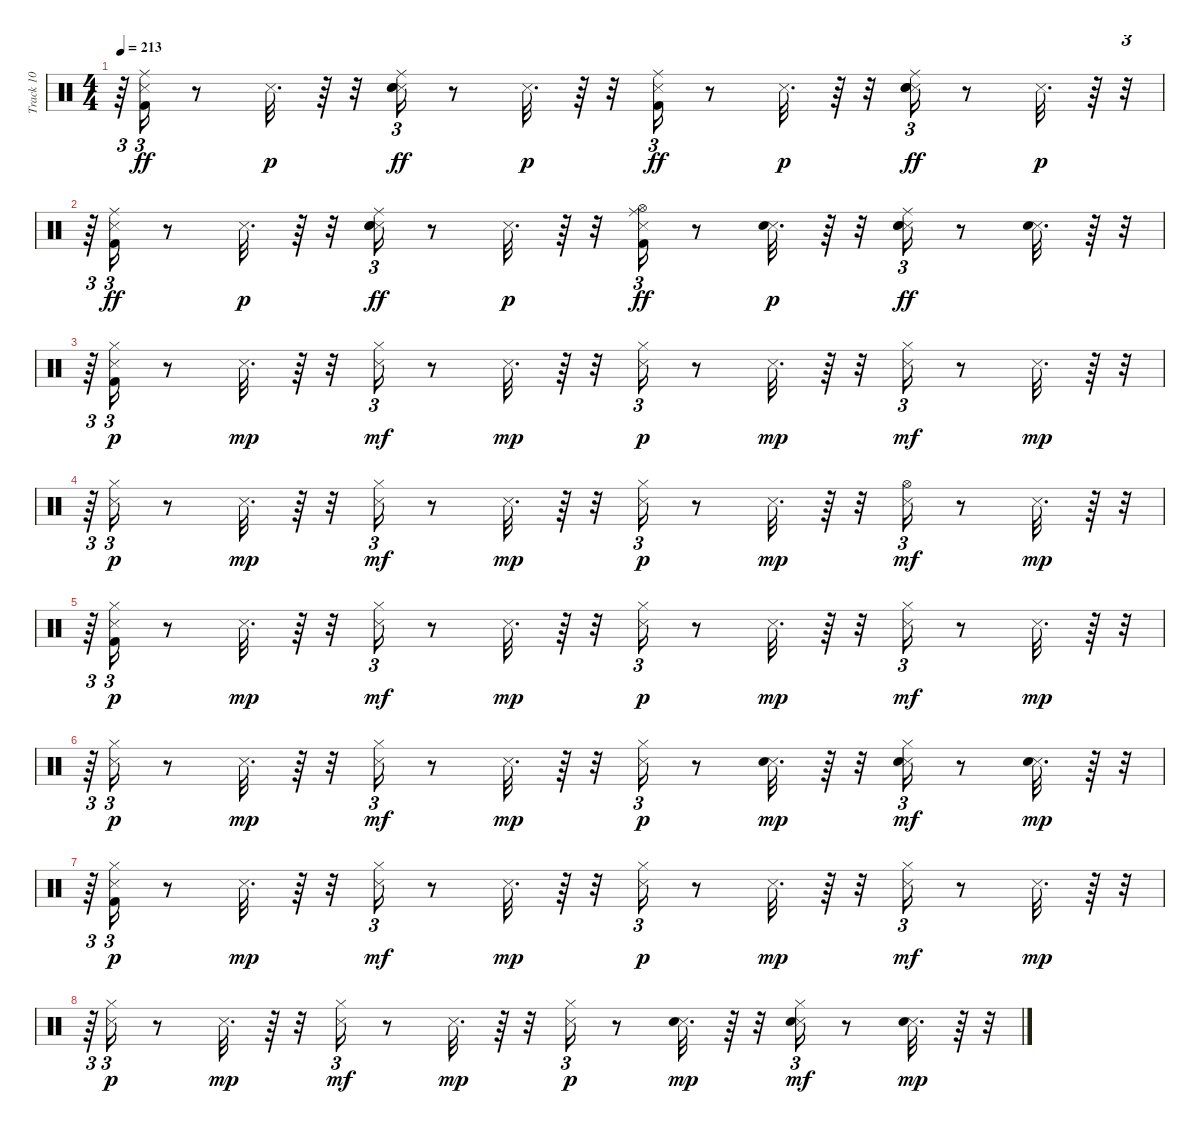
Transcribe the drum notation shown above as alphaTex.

\track ("Track 10" "Track 10") {instrument percussion}
\staff {score}
\articulation defaults
\ts (4 4)
\tempo 213
\clef neutral
\ks c
r.64{tu (3 2) dy p} ("Kick (hit) 2" "Snare (side stick) 3" "Ride (middle)").16{tu (3 2) dy ff} r.8 "Snare (side stick) 3".32{d dy p} r.64 r.32 ("Snare (side stick) 3" "Hand Clap (hit)" "Electric Snare (hit)" "Ride (middle)").16{tu (3 2) dy ff} r.8 "Snare (side stick) 3".32{d dy p} r.64 r.32 ("Kick (hit) 2" "Snare (side stick) 3" "Ride (middle)").16{tu (3 2) dy ff} r.8 "Snare (side stick) 3".32{d dy p} r.64 r.32 ("Snare (side stick) 3" "Hand Clap (hit)" "Electric Snare (hit)" "Ride (middle)").16{tu (3 2) dy ff} r.8 "Snare (side stick) 3".32{d dy p} r.64 r.32{tu (3 2)} |
r.64{tu (3 2)} ("Kick (hit) 2" "Snare (side stick) 3" "Ride (middle)").16{tu (3 2) dy ff} r.8 "Snare (side stick) 3".32{d dy p} r.64 r.32 ("Snare (side stick) 3" "Hand Clap (hit)" "Electric Snare (hit)" "Ride (middle)").16{tu (3 2) dy ff} r.8 "Snare (side stick) 3".32{d dy p} r.64 r.32 ("Kick (hit) 2" "Snare (side stick) 3" "Hi-Hat (open)" "Ride (middle)").16{tu (3 2) dy ff} r.8 ("Snare (side stick) 3" "Electric Snare (hit)").32{d dy p} r.64 r.32 ("Snare (side stick) 3" "Hand Clap (hit)" "Electric Snare (hit)" "Ride (middle)").16{tu (3 2) dy ff} r.8 ("Snare (side stick) 3" "Electric Snare (hit)").32{d} r.64 r.32{tu (3 2)} |
r.64{tu (3 2)} ("Kick (hit) 2" "Snare (side stick) 3" "Hi-Hat (closed)").16{tu (3 2) dy p} r.8 "Snare (side stick) 3".32{d dy mp} r.64 r.32 ("Snare (side stick) 3" "Hi-Hat (closed)").16{tu (3 2) dy mf} r.8 "Snare (side stick) 3".32{d dy mp} r.64 r.32 ("Snare (side stick) 3" "Hi-Hat (closed)").16{tu (3 2) dy p} r.8 "Snare (side stick) 3".32{d dy mp} r.64 r.32 ("Snare (side stick) 3" "Hi-Hat (closed)").16{tu (3 2) dy mf} r.8 "Snare (side stick) 3".32{d dy mp} r.64 r.32{tu (3 2)} |
r.64{tu (3 2)} ("Snare (side stick) 3" "Hi-Hat (closed)").16{tu (3 2) dy p} r.8 "Snare (side stick) 3".32{d dy mp} r.64 r.32 ("Snare (side stick) 3" "Hi-Hat (closed)").16{tu (3 2) dy mf} r.8 "Snare (side stick) 3".32{d dy mp} r.64 r.32 ("Snare (side stick) 3" "Hi-Hat (closed)").16{tu (3 2) dy p} r.8 "Snare (side stick) 3".32{d dy mp} r.64 r.32 ("Snare (side stick) 3" "Hi-Hat (open)").16{tu (3 2) dy mf} r.8 "Snare (side stick) 3".32{d dy mp} r.64 r.32{tu (3 2)} |
r.64{tu (3 2)} ("Kick (hit) 2" "Snare (side stick) 3" "Hi-Hat (closed)").16{tu (3 2) dy p} r.8 "Snare (side stick) 3".32{d dy mp} r.64 r.32 ("Snare (side stick) 3" "Hi-Hat (closed)").16{tu (3 2) dy mf} r.8 "Snare (side stick) 3".32{d dy mp} r.64 r.32 ("Snare (side stick) 3" "Hi-Hat (closed)").16{tu (3 2) dy p} r.8 "Snare (side stick) 3".32{d dy mp} r.64 r.32 ("Snare (side stick) 3" "Hi-Hat (closed)").16{tu (3 2) dy mf} r.8 "Snare (side stick) 3".32{d dy mp} r.64 r.32{tu (3 2)} |
r.64{tu (3 2)} ("Snare (side stick) 3" "Hi-Hat (closed)").16{tu (3 2) dy p} r.8 "Snare (side stick) 3".32{d dy mp} r.64 r.32 ("Snare (side stick) 3" "Hi-Hat (closed)").16{tu (3 2) dy mf} r.8 "Snare (side stick) 3".32{d dy mp} r.64 r.32 ("Snare (side stick) 3" "Hi-Hat (closed)").16{tu (3 2) dy p} r.8 ("Snare (side stick) 3" "Electric Snare (hit)").32{d dy mp} r.64 r.32 ("Snare (side stick) 3" "Electric Snare (hit)" "Hi-Hat (closed)").16{tu (3 2) dy mf} r.8 ("Snare (side stick) 3" "Electric Snare (hit)").32{d dy mp} r.64 r.32{tu (3 2)} |
r.64{tu (3 2)} ("Kick (hit) 2" "Snare (side stick) 3" "Hi-Hat (closed)").16{tu (3 2) dy p} r.8 "Snare (side stick) 3".32{d dy mp} r.64 r.32 ("Snare (side stick) 3" "Hi-Hat (closed)").16{tu (3 2) dy mf} r.8 "Snare (side stick) 3".32{d dy mp} r.64 r.32 ("Snare (side stick) 3" "Hi-Hat (closed)").16{tu (3 2) dy p} r.8 "Snare (side stick) 3".32{d dy mp} r.64 r.32 ("Snare (side stick) 3" "Hi-Hat (closed)").16{tu (3 2) dy mf} r.8 "Snare (side stick) 3".32{d dy mp} r.64 r.32{tu (3 2)} |
r.64{tu (3 2)} ("Snare (side stick) 3" "Hi-Hat (closed)").16{tu (3 2) dy p} r.8 "Snare (side stick) 3".32{d dy mp} r.64 r.32 ("Snare (side stick) 3" "Hi-Hat (closed)").16{tu (3 2) dy mf} r.8 "Snare (side stick) 3".32{d dy mp} r.64 r.32 ("Snare (side stick) 3" "Hi-Hat (closed)").16{tu (3 2) dy p} r.8 ("Snare (side stick) 3" "Electric Snare (hit)").32{d dy mp} r.64 r.32 ("Snare (side stick) 3" "Electric Snare (hit)" "Hi-Hat (closed)").16{tu (3 2) dy mf} r.8 ("Snare (side stick) 3" "Electric Snare (hit)").32{d dy mp} r.64 r.32{tu (3 2)}
